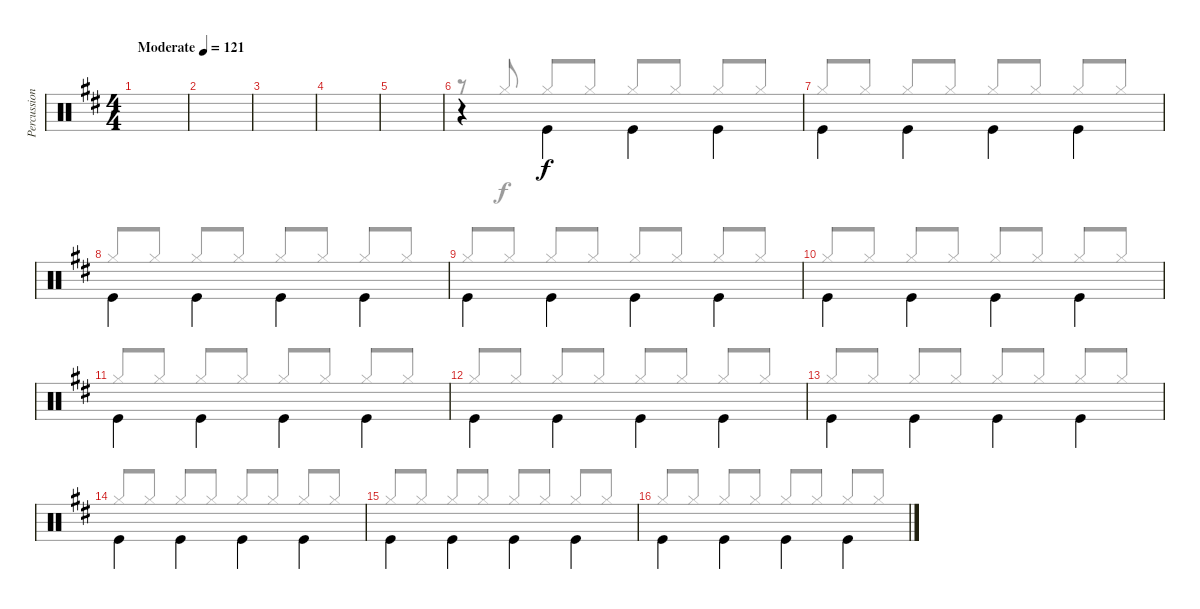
\track ("Percussions" "Percussion") {instrument percussion}
\staff {score}
\articulation defaults
\voice
\ts (4 4)
\tempo (121 "Moderate")
\clef neutral
\ks d
|
|
|
|
|
r.4 "Kick (hit)".4{beam Down} "Kick (hit)".4{beam Down} "Kick (hit)".4{beam Down} |
"Kick (hit)".4{beam Down} "Kick (hit)".4{beam Down} "Kick (hit)".4{beam Down} "Kick (hit)".4{beam Down} |
"Kick (hit)".4{beam Down} "Kick (hit)".4{beam Down} "Kick (hit)".4{beam Down} "Kick (hit)".4{beam Down} |
"Kick (hit)".4{beam Down} "Kick (hit)".4{beam Down} "Kick (hit)".4{beam Down} "Kick (hit)".4{beam Down} |
"Kick (hit)".4{beam Down} "Kick (hit)".4{beam Down} "Kick (hit)".4{beam Down} "Kick (hit)".4{beam Down} |
"Kick (hit)".4{beam Down} "Kick (hit)".4{beam Down} "Kick (hit)".4{beam Down} "Kick (hit)".4{beam Down} |
"Kick (hit)".4{beam Down} "Kick (hit)".4{beam Down} "Kick (hit)".4{beam Down} "Kick (hit)".4{beam Down} |
"Kick (hit)".4{beam Down} "Kick (hit)".4{beam Down} "Kick (hit)".4{beam Down} "Kick (hit)".4{beam Down} |
"Kick (hit)".4{beam Down} "Kick (hit)".4{beam Down} "Kick (hit)".4{beam Down} "Kick (hit)".4{beam Down} |
"Kick (hit)".4{beam Down} "Kick (hit)".4{beam Down} "Kick (hit)".4{beam Down} "Kick (hit)".4{beam Down} |
"Kick (hit)".4{beam Down} "Kick (hit)".4{beam Down} "Kick (hit)".4{beam Down} "Kick (hit)".4{beam Down}
\voice
\clef neutral
\ottava regular
\simile none
\ks d
|
|
|
|
|
r.8 "Hi-Hat (closed)".8{beam Up} "Hi-Hat (closed)".8{beam Up} "Hi-Hat (closed)".8{beam Up} "Hi-Hat (closed)".8{beam Up} "Hi-Hat (closed)".8{beam Up} "Hi-Hat (closed)".8{beam Up} "Hi-Hat (closed)".8{beam Up} |
"Hi-Hat (closed)".8{beam Up} "Hi-Hat (closed)".8{beam Up} "Hi-Hat (closed)".8{beam Up} "Hi-Hat (closed)".8{beam Up} "Hi-Hat (closed)".8{beam Up} "Hi-Hat (closed)".8{beam Up} "Hi-Hat (closed)".8{beam Up} "Hi-Hat (closed)".8{beam Up} |
"Hi-Hat (closed)".8{beam Up} "Hi-Hat (closed)".8{beam Up} "Hi-Hat (closed)".8{beam Up} "Hi-Hat (closed)".8{beam Up} "Hi-Hat (closed)".8{beam Up} "Hi-Hat (closed)".8{beam Up} "Hi-Hat (closed)".8{beam Up} "Hi-Hat (closed)".8{beam Up} |
"Hi-Hat (closed)".8{beam Up} "Hi-Hat (closed)".8{beam Up} "Hi-Hat (closed)".8{beam Up} "Hi-Hat (closed)".8{beam Up} "Hi-Hat (closed)".8{beam Up} "Hi-Hat (closed)".8{beam Up} "Hi-Hat (closed)".8{beam Up} "Hi-Hat (closed)".8{beam Up} |
"Hi-Hat (closed)".8{beam Up} "Hi-Hat (closed)".8{beam Up} "Hi-Hat (closed)".8{beam Up} "Hi-Hat (closed)".8{beam Up} "Hi-Hat (closed)".8{beam Up} "Hi-Hat (closed)".8{beam Up} "Hi-Hat (closed)".8{beam Up} "Hi-Hat (closed)".8{beam Up} |
"Hi-Hat (closed)".8{beam Up} "Hi-Hat (closed)".8{beam Up} "Hi-Hat (closed)".8{beam Up} "Hi-Hat (closed)".8{beam Up} "Hi-Hat (closed)".8{beam Up} "Hi-Hat (closed)".8{beam Up} "Hi-Hat (closed)".8{beam Up} "Hi-Hat (closed)".8{beam Up} |
"Hi-Hat (closed)".8{beam Up} "Hi-Hat (closed)".8{beam Up} "Hi-Hat (closed)".8{beam Up} "Hi-Hat (closed)".8{beam Up} "Hi-Hat (closed)".8{beam Up} "Hi-Hat (closed)".8{beam Up} "Hi-Hat (closed)".8{beam Up} "Hi-Hat (closed)".8{beam Up} |
"Hi-Hat (closed)".8{beam Up} "Hi-Hat (closed)".8{beam Up} "Hi-Hat (closed)".8{beam Up} "Hi-Hat (closed)".8{beam Up} "Hi-Hat (closed)".8{beam Up} "Hi-Hat (closed)".8{beam Up} "Hi-Hat (closed)".8{beam Up} "Hi-Hat (closed)".8{beam Up} |
"Hi-Hat (closed)".8{beam Up} "Hi-Hat (closed)".8{beam Up} "Hi-Hat (closed)".8{beam Up} "Hi-Hat (closed)".8{beam Up} "Hi-Hat (closed)".8{beam Up} "Hi-Hat (closed)".8{beam Up} "Hi-Hat (closed)".8{beam Up} "Hi-Hat (closed)".8{beam Up} |
"Hi-Hat (closed)".8{beam Up} "Hi-Hat (closed)".8{beam Up} "Hi-Hat (closed)".8{beam Up} "Hi-Hat (closed)".8{beam Up} "Hi-Hat (closed)".8{beam Up} "Hi-Hat (closed)".8{beam Up} "Hi-Hat (closed)".8{beam Up} "Hi-Hat (closed)".8{beam Up} |
"Hi-Hat (closed)".8{beam Up} "Hi-Hat (closed)".8{beam Up} "Hi-Hat (closed)".8{beam Up} "Hi-Hat (closed)".8{beam Up} "Hi-Hat (closed)".8{beam Up} "Hi-Hat (closed)".8{beam Up} "Hi-Hat (closed)".8{beam Up} "Hi-Hat (closed)".8{beam Up}
